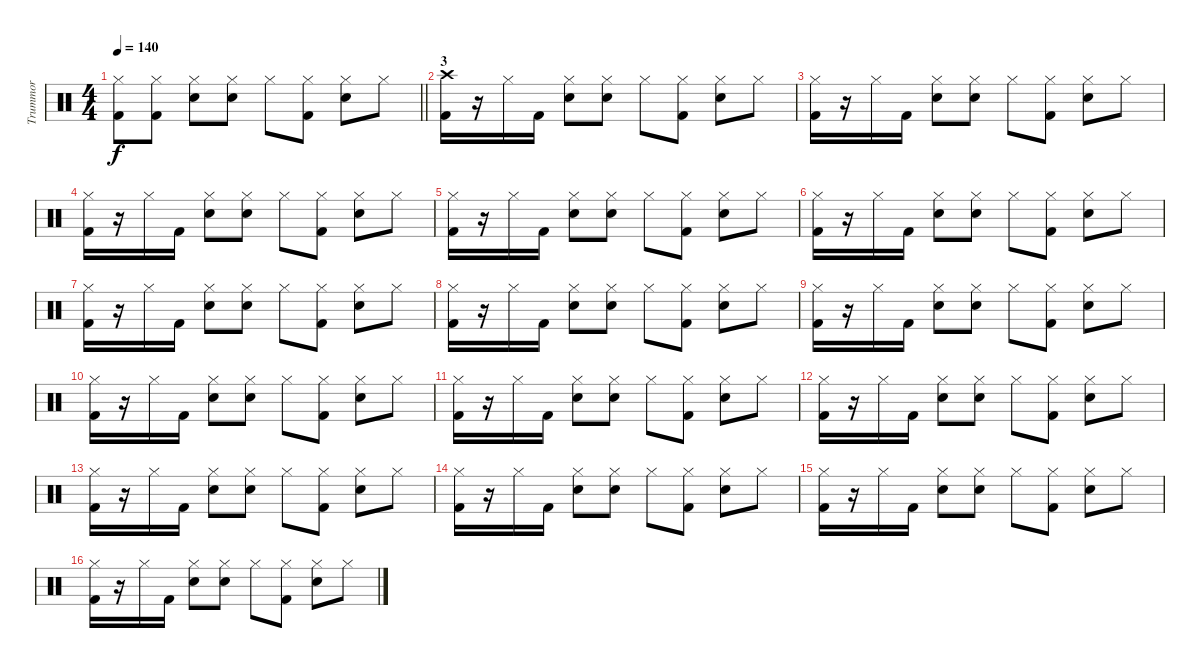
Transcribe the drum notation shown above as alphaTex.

\track ("Trummor" "Trummor") {instrument percussion}
\staff {score}
\articulation defaults
\ts (4 4)
\tempo 140
\clef neutral
\barLineRight lightlight
\ks c
("Hi-Hat (closed)" "Kick (hit) 2").8{dy f} ("Hi-Hat (closed)" "Kick (hit) 2").8 ("Hi-Hat (closed)" "Electric Snare (hit)").8 ("Hi-Hat (closed)" "Electric Snare (hit)").8 "Hi-Hat (closed)".8 ("Hi-Hat (closed)" "Kick (hit) 2").8 ("Hi-Hat (closed)" "Electric Snare (hit)").8 "Hi-Hat (closed)".8 |
\section ("" "3")
("Crash high (hit)" "Kick (hit) 2").16 r.16 "Hi-Hat (closed)".16 "Kick (hit) 2".16 ("Hi-Hat (closed)" "Electric Snare (hit)").8 ("Hi-Hat (closed)" "Electric Snare (hit)").8 "Hi-Hat (closed)".8 ("Hi-Hat (closed)" "Kick (hit) 2").8 ("Hi-Hat (closed)" "Electric Snare (hit)").8 "Hi-Hat (closed)".8 |
("Hi-Hat (closed)" "Kick (hit) 2").16 r.16 "Hi-Hat (closed)".16 "Kick (hit) 2".16 ("Hi-Hat (closed)" "Electric Snare (hit)").8 ("Hi-Hat (closed)" "Electric Snare (hit)").8 "Hi-Hat (closed)".8 ("Hi-Hat (closed)" "Kick (hit) 2").8 ("Hi-Hat (closed)" "Electric Snare (hit)").8 "Hi-Hat (closed)".8 |
("Hi-Hat (closed)" "Kick (hit) 2").16 r.16 "Hi-Hat (closed)".16 "Kick (hit) 2".16 ("Hi-Hat (closed)" "Electric Snare (hit)").8 ("Hi-Hat (closed)" "Electric Snare (hit)").8 "Hi-Hat (closed)".8 ("Hi-Hat (closed)" "Kick (hit) 2").8 ("Hi-Hat (closed)" "Electric Snare (hit)").8 "Hi-Hat (closed)".8 |
("Hi-Hat (closed)" "Kick (hit) 2").16 r.16 "Hi-Hat (closed)".16 "Kick (hit) 2".16 ("Hi-Hat (closed)" "Electric Snare (hit)").8 ("Hi-Hat (closed)" "Electric Snare (hit)").8 "Hi-Hat (closed)".8 ("Hi-Hat (closed)" "Kick (hit) 2").8 ("Hi-Hat (closed)" "Electric Snare (hit)").8 "Hi-Hat (closed)".8 |
("Hi-Hat (closed)" "Kick (hit) 2").16 r.16 "Hi-Hat (closed)".16 "Kick (hit) 2".16 ("Hi-Hat (closed)" "Electric Snare (hit)").8 ("Hi-Hat (closed)" "Electric Snare (hit)").8 "Hi-Hat (closed)".8 ("Hi-Hat (closed)" "Kick (hit) 2").8 ("Hi-Hat (closed)" "Electric Snare (hit)").8 "Hi-Hat (closed)".8 |
("Hi-Hat (closed)" "Kick (hit) 2").16 r.16 "Hi-Hat (closed)".16 "Kick (hit) 2".16 ("Hi-Hat (closed)" "Electric Snare (hit)").8 ("Hi-Hat (closed)" "Electric Snare (hit)").8 "Hi-Hat (closed)".8 ("Hi-Hat (closed)" "Kick (hit) 2").8 ("Hi-Hat (closed)" "Electric Snare (hit)").8 "Hi-Hat (closed)".8 |
("Hi-Hat (closed)" "Kick (hit) 2").16 r.16 "Hi-Hat (closed)".16 "Kick (hit) 2".16 ("Hi-Hat (closed)" "Electric Snare (hit)").8 ("Hi-Hat (closed)" "Electric Snare (hit)").8 "Hi-Hat (closed)".8 ("Hi-Hat (closed)" "Kick (hit) 2").8 ("Hi-Hat (closed)" "Electric Snare (hit)").8 "Hi-Hat (closed)".8 |
("Hi-Hat (closed)" "Kick (hit) 2").16 r.16 "Hi-Hat (closed)".16 "Kick (hit) 2".16 ("Hi-Hat (closed)" "Electric Snare (hit)").8 ("Hi-Hat (closed)" "Electric Snare (hit)").8 "Hi-Hat (closed)".8 ("Hi-Hat (closed)" "Kick (hit) 2").8 ("Hi-Hat (closed)" "Electric Snare (hit)").8 "Hi-Hat (closed)".8 |
("Hi-Hat (closed)" "Kick (hit) 2").16 r.16 "Hi-Hat (closed)".16 "Kick (hit) 2".16 ("Hi-Hat (closed)" "Electric Snare (hit)").8 ("Hi-Hat (closed)" "Electric Snare (hit)").8 "Hi-Hat (closed)".8 ("Hi-Hat (closed)" "Kick (hit) 2").8 ("Hi-Hat (closed)" "Electric Snare (hit)").8 "Hi-Hat (closed)".8 |
("Hi-Hat (closed)" "Kick (hit) 2").16 r.16 "Hi-Hat (closed)".16 "Kick (hit) 2".16 ("Hi-Hat (closed)" "Electric Snare (hit)").8 ("Hi-Hat (closed)" "Electric Snare (hit)").8 "Hi-Hat (closed)".8 ("Hi-Hat (closed)" "Kick (hit) 2").8 ("Hi-Hat (closed)" "Electric Snare (hit)").8 "Hi-Hat (closed)".8 |
("Hi-Hat (closed)" "Kick (hit) 2").16 r.16 "Hi-Hat (closed)".16 "Kick (hit) 2".16 ("Hi-Hat (closed)" "Electric Snare (hit)").8 ("Hi-Hat (closed)" "Electric Snare (hit)").8 "Hi-Hat (closed)".8 ("Hi-Hat (closed)" "Kick (hit) 2").8 ("Hi-Hat (closed)" "Electric Snare (hit)").8 "Hi-Hat (closed)".8 |
("Hi-Hat (closed)" "Kick (hit) 2").16 r.16 "Hi-Hat (closed)".16 "Kick (hit) 2".16 ("Hi-Hat (closed)" "Electric Snare (hit)").8 ("Hi-Hat (closed)" "Electric Snare (hit)").8 "Hi-Hat (closed)".8 ("Hi-Hat (closed)" "Kick (hit) 2").8 ("Hi-Hat (closed)" "Electric Snare (hit)").8 "Hi-Hat (closed)".8 |
("Hi-Hat (closed)" "Kick (hit) 2").16 r.16 "Hi-Hat (closed)".16 "Kick (hit) 2".16 ("Hi-Hat (closed)" "Electric Snare (hit)").8 ("Hi-Hat (closed)" "Electric Snare (hit)").8 "Hi-Hat (closed)".8 ("Hi-Hat (closed)" "Kick (hit) 2").8 ("Hi-Hat (closed)" "Electric Snare (hit)").8 "Hi-Hat (closed)".8 |
("Hi-Hat (closed)" "Kick (hit) 2").16 r.16 "Hi-Hat (closed)".16 "Kick (hit) 2".16 ("Hi-Hat (closed)" "Electric Snare (hit)").8 ("Hi-Hat (closed)" "Electric Snare (hit)").8 "Hi-Hat (closed)".8 ("Hi-Hat (closed)" "Kick (hit) 2").8 ("Hi-Hat (closed)" "Electric Snare (hit)").8 "Hi-Hat (closed)".8 |
("Hi-Hat (closed)" "Kick (hit) 2").16 r.16 "Hi-Hat (closed)".16 "Kick (hit) 2".16 ("Hi-Hat (closed)" "Electric Snare (hit)").8 ("Hi-Hat (closed)" "Electric Snare (hit)").8 "Hi-Hat (closed)".8 ("Hi-Hat (closed)" "Kick (hit) 2").8 ("Hi-Hat (closed)" "Electric Snare (hit)").8 "Hi-Hat (closed)".8
